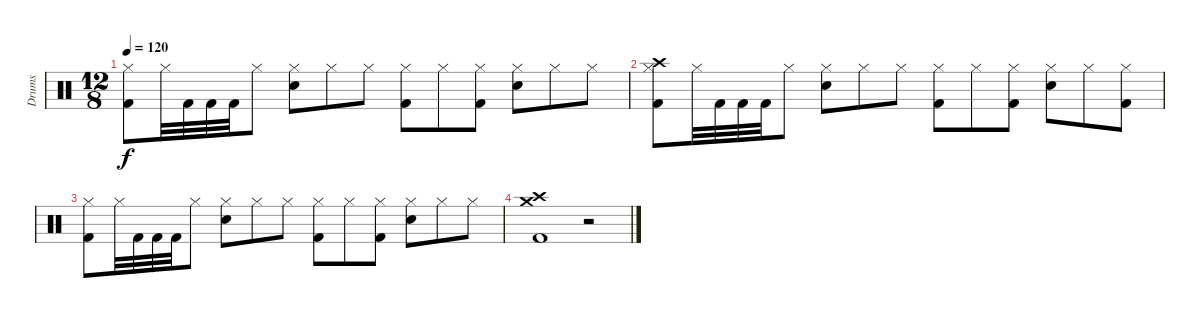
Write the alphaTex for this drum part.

\track ("Drums" "Drums") {instrument percussion}
\staff {score}
\articulation defaults
\ts (12 8)
\tempo 120
\clef neutral
\ks c
("Hi-Hat (closed)" "Kick (hit) 2").8{dy f} "Hi-Hat (closed)".32 "Kick (hit) 2".32 "Kick (hit) 2".32 "Kick (hit) 2".32 "Hi-Hat (closed)".8 ("Hi-Hat (closed)" "Snare (hit) 2").8 "Hi-Hat (closed)".8 "Hi-Hat (closed)".8 ("Hi-Hat (closed)" "Kick (hit) 2").8 "Hi-Hat (closed)".8 ("Hi-Hat (closed)" "Kick (hit) 2").8 ("Hi-Hat (closed)" "Snare (hit) 2").8 "Hi-Hat (closed)".8 "Hi-Hat (closed)".8 |
("Crash high (hit)" "Hi-Hat (closed)" "Kick (hit) 2").8 "Hi-Hat (closed)".32 "Kick (hit) 2".32 "Kick (hit) 2".32 "Kick (hit) 2".32 "Hi-Hat (closed)".8 ("Hi-Hat (closed)" "Snare (hit) 2").8 "Hi-Hat (closed)".8 "Hi-Hat (closed)".8 ("Hi-Hat (closed)" "Kick (hit) 2").8 "Hi-Hat (closed)".8 ("Hi-Hat (closed)" "Kick (hit) 2").8 ("Hi-Hat (closed)" "Snare (hit) 2").8 "Hi-Hat (closed)".8 ("Hi-Hat (closed)" "Kick (hit) 2").8 |
("Hi-Hat (closed)" "Kick (hit) 2").8 "Hi-Hat (closed)".32 "Kick (hit) 2".32 "Kick (hit) 2".32 "Kick (hit) 2".32 "Hi-Hat (closed)".8 ("Hi-Hat (closed)" "Snare (hit) 2").8 "Hi-Hat (closed)".8 "Hi-Hat (closed)".8 ("Hi-Hat (closed)" "Kick (hit) 2").8 "Hi-Hat (closed)".8 ("Hi-Hat (closed)" "Kick (hit) 2").8 ("Hi-Hat (closed)" "Snare (hit) 2").8 "Hi-Hat (closed)".8 "Hi-Hat (closed)".8 |
("Crash high (hit)" "Crash medium (hit)" "Kick (hit) 2").1 r.2
